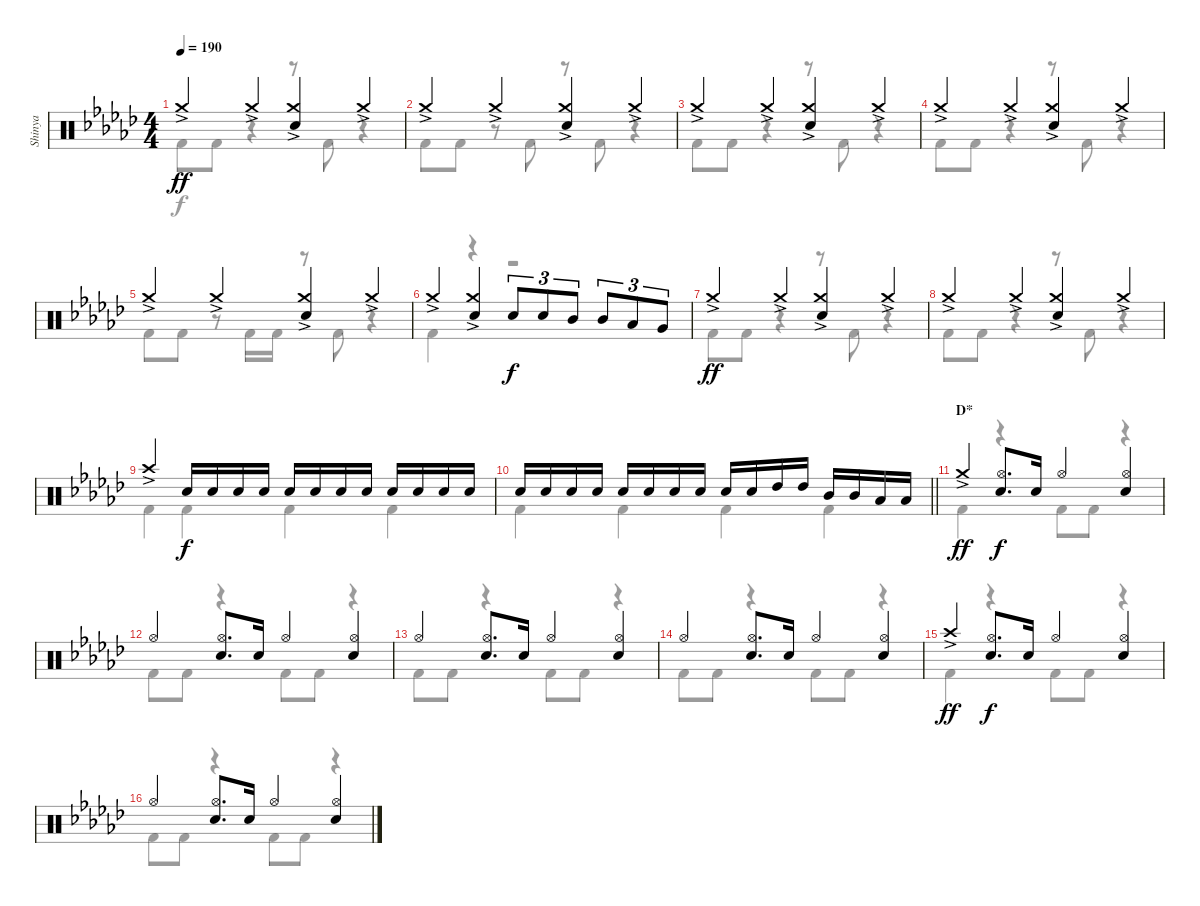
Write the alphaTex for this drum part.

\track ("Shinya" "Shinya") {instrument percussion}
\staff {score}
\articulation defaults
\voice
\ts (4 4)
\tempo 190
\clef neutral
\ks ebminor "Crash medium (hit)"{ac}.4{dy ff} "Crash medium (hit)"{ac}.4
("Crash medium (hit)"{ac} "Snare (hit) 2").4 "Crash medium (hit)"{ac}.4 |
"Crash medium (hit)"{ac}.4 "Crash medium (hit)"{ac}.4 ("Crash medium (hit)"{ac} "Snare (hit) 2").4 "Crash medium (hit)"{ac}.4 |
"Crash medium (hit)"{ac}.4 "Crash medium (hit)"{ac}.4 ("Crash medium (hit)"{ac} "Snare (hit) 2").4 "Crash medium (hit)"{ac}.4 |
"Crash medium (hit)"{ac}.4 "Crash medium (hit)"{ac}.4 ("Crash medium (hit)"{ac} "Snare (hit) 2").4 "Crash medium (hit)"{ac}.4 |
"Crash medium (hit)"{ac}.4 "Crash medium (hit)"{ac}.4 ("Crash medium (hit)"{ac} "Snare (hit) 2").4 "Crash medium (hit)"{ac}.4 |
"Crash medium (hit)"{ac}.4 ("Crash medium (hit)"{ac} "Snare (hit) 2").4 "Snare (hit) 2".8{tu (3 2) dy f} "Snare (hit) 2".8{tu (3 2)} "Mid Tom (hit)".8{tu (3 2)} "Mid Tom (hit)".8{tu (3 2)} "Low Tom (hit)".8{tu (3 2)} "Very Low Tom (hit)".8{tu (3 2)} |
"Crash medium (hit)"{ac}.4{dy ff} "Crash medium (hit)"{ac}.4 ("Crash medium (hit)"{ac} "Snare (hit) 2").4 "Crash medium (hit)"{ac}.4 |
"Crash medium (hit)"{ac}.4 "Crash medium (hit)"{ac}.4 ("Crash medium (hit)"{ac} "Snare (hit) 2").4 "Crash medium (hit)"{ac}.4 |
"Crash high (hit)"{ac}.4 "Snare (hit) 2".16{dy f} "Snare (hit) 2".16 "Snare (hit) 2".16 "Snare (hit) 2".16 "Snare (hit) 2".16 "Snare (hit) 2".16 "Snare (hit) 2".16 "Snare (hit) 2".16 "Snare (hit) 2".16 "Snare (hit) 2".16 "Snare (hit) 2".16 "Snare (hit) 2".16 |
\barLineRight lightlight "Snare (hit) 2".16 "Snare (hit) 2".16 "Snare (hit) 2".16 "Snare (hit) 2".16 "Snare (hit) 2".16 "Snare (hit) 2".16 "Snare (hit) 2".16 "Snare (hit) 2".16 "Snare (hit) 2".16 "Snare (hit) 2".16 "High Tom (hit)".16 "High Tom (hit)".16 "Mid Tom (hit)".16 "Mid Tom (hit)".16 "Low Tom (hit)".16 "Low Tom (hit)".16
|
\section ("" "D*")
"Crash medium (hit)"{ac}.4{dy ff} ("Hi-Hat (open)" "Snare (hit) 2").8{d dy f} "Snare (hit) 2".16 "Hi-Hat (open)".4 ("Hi-Hat (open)" "Snare (hit) 2").4 |
"Hi-Hat (open)".4 ("Hi-Hat (open)" "Snare (hit) 2").8{d} "Snare (hit) 2".16 "Hi-Hat (open)".4 ("Hi-Hat (open)" "Snare (hit) 2").4 |
"Hi-Hat (open)".4 ("Hi-Hat (open)" "Snare (hit) 2").8{d} "Snare (hit) 2".16 "Hi-Hat (open)".4 ("Hi-Hat (open)" "Snare (hit) 2").4 |
"Hi-Hat (open)".4 ("Hi-Hat (open)" "Snare (hit) 2").8{d} "Snare (hit) 2".16 "Hi-Hat (open)".4 ("Hi-Hat (open)" "Snare (hit) 2").4 |
"Crash high (hit)"{ac}.4{dy ff} ("Hi-Hat (open)" "Snare (hit) 2").8{d dy f} "Snare (hit) 2".16 "Hi-Hat (open)".4 ("Hi-Hat (open)" "Snare (hit) 2").4 |
"Hi-Hat (open)".4 ("Hi-Hat (open)" "Snare (hit) 2").8{d} "Snare (hit) 2".16 "Hi-Hat (open)".4 ("Hi-Hat (open)" "Snare (hit) 2").4
\voice
\clef neutral
\ottava regular
\simile none
\ks ebminor "Kick (hit) 2".8{dy f} "Kick (hit) 2".8
r.4 r.8 "Kick (hit) 2".8 r.4 |
"Kick (hit) 2".8 "Kick (hit) 2".8 r.8 "Kick (hit) 2".8 r.8 "Kick (hit) 2".8 r.4 |
"Kick (hit) 2".8 "Kick (hit) 2".8 r.4 r.8 "Kick (hit) 2".8 r.4 |
"Kick (hit) 2".8 "Kick (hit) 2".8 r.4 r.8 "Kick (hit) 2".8 r.4 |
"Kick (hit) 2".8 "Kick (hit) 2".8 r.8 "Kick (hit) 2".16 "Kick (hit) 2".16 r.8 "Kick (hit) 2".8 r.4 |
"Kick (hit) 2".4 r.4 r.2 |
"Kick (hit) 2".8 "Kick (hit) 2".8 r.4 r.8 "Kick (hit) 2".8 r.4 |
"Kick (hit) 2".8 "Kick (hit) 2".8 r.4 r.8 "Kick (hit) 2".8 r.4 |
"Kick (hit) 2".4 "Kick (hit) 2".4 "Kick (hit) 2".4 "Kick (hit) 2".4 |
\barLineRight lightlight "Kick (hit) 2".4 "Kick (hit) 2".4 "Kick (hit) 2".4 "Kick (hit) 2".4
|
"Kick (hit) 2".4 r.4 "Kick (hit) 2".8 "Kick (hit) 2".8 r.4 |
"Kick (hit) 2".8 "Kick (hit) 2".8 r.4 "Kick (hit) 2".8 "Kick (hit) 2".8 r.4 |
"Kick (hit) 2".8 "Kick (hit) 2".8 r.4 "Kick (hit) 2".8 "Kick (hit) 2".8 r.4 |
"Kick (hit) 2".8 "Kick (hit) 2".8 r.4 "Kick (hit) 2".8 "Kick (hit) 2".8 r.4 |
"Kick (hit) 2".4 r.4 "Kick (hit) 2".8 "Kick (hit) 2".8 r.4 |
"Kick (hit) 2".8 "Kick (hit) 2".8 r.4 "Kick (hit) 2".8 "Kick (hit) 2".8 r.4
